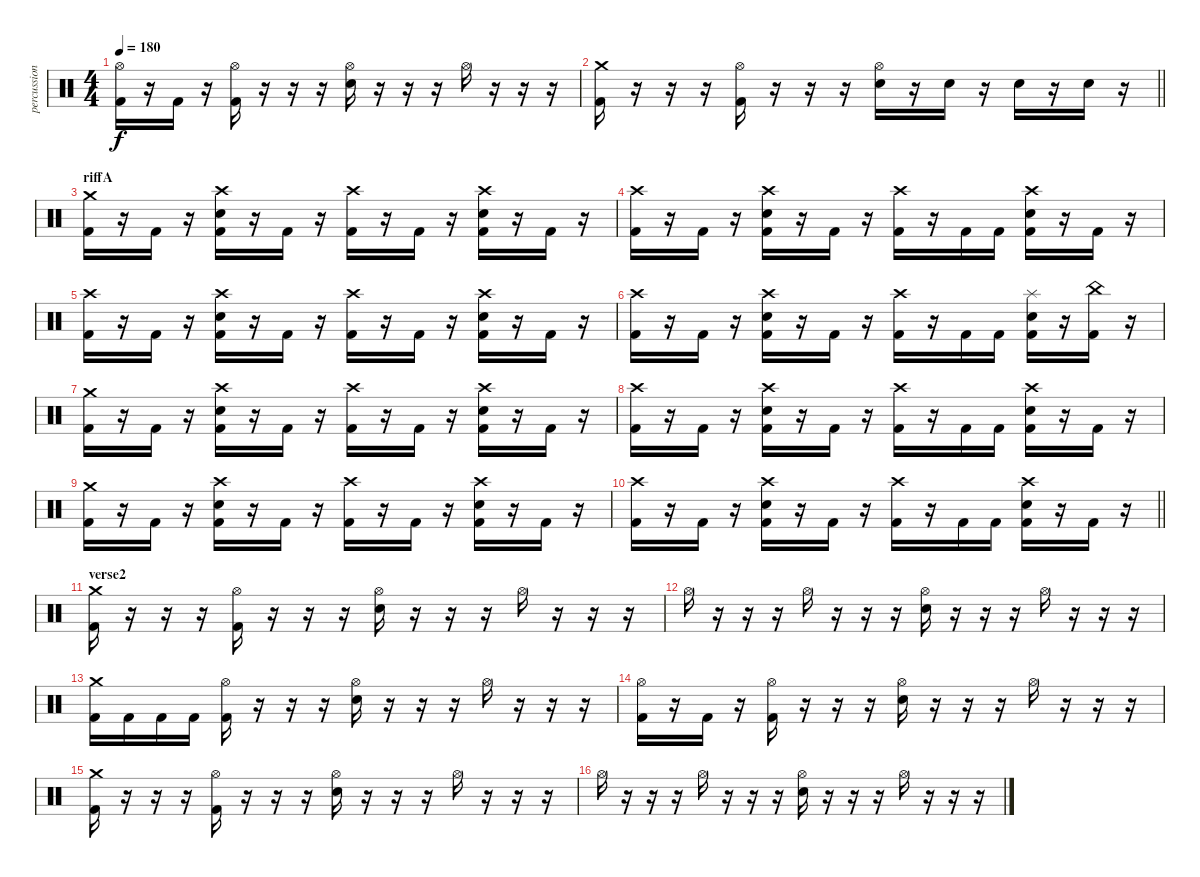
\track ("percussion" "percussion") {instrument percussion}
\staff {score}
\articulation defaults
\ts (4 4)
\tempo 180
\clef neutral
\ks c
("Hi-Hat (open)" "Kick (hit) 2").16{dy f} r.16 "Kick (hit) 2".16 r.16 ("Hi-Hat (open)" "Kick (hit) 2").16 r.16 r.16 r.16 ("Hi-Hat (open)" "Electric Snare (hit)").16 r.16 r.16 r.16 "Hi-Hat (open)".16 r.16 r.16 r.16 |
\barLineRight lightlight
("Crash medium (hit)" "Kick (hit) 2").16 r.16 r.16 r.16 ("Hi-Hat (open)" "Kick (hit) 2").16 r.16 r.16 r.16 ("Hi-Hat (open)" "Electric Snare (hit)").16 r.16 "Electric Snare (hit)".16 r.16 "Electric Snare (hit)".16 r.16 "Electric Snare (hit)".16 r.16 |
\section ("" "riffA")
("Crash medium (hit)" "Kick (hit) 2").16 r.16 "Kick (hit) 2".16 r.16 ("Crash high (hit)" "Electric Snare (hit)" "Kick (hit) 2").16 r.16 "Kick (hit) 2".16 r.16 ("Crash high (hit)" "Kick (hit) 2").16 r.16 "Kick (hit) 2".16 r.16 ("Crash high (hit)" "Electric Snare (hit)" "Kick (hit) 2").16 r.16 "Kick (hit) 2".16 r.16 |
("Crash high (hit)" "Kick (hit) 2").16 r.16 "Kick (hit) 2".16 r.16 ("Crash high (hit)" "Electric Snare (hit)" "Kick (hit) 2").16 r.16 "Kick (hit) 2".16 r.16 ("Crash high (hit)" "Kick (hit) 2").16 r.16 "Kick (hit) 2".16 "Kick (hit) 2".16 ("Crash high (hit)" "Electric Snare (hit)" "Kick (hit) 2").16 r.16 "Kick (hit) 2".16 r.16 |
("Crash high (hit)" "Kick (hit) 2").16 r.16 "Kick (hit) 2".16 r.16 ("Crash high (hit)" "Electric Snare (hit)" "Kick (hit) 2").16 r.16 "Kick (hit) 2".16 r.16 ("Crash high (hit)" "Kick (hit) 2").16 r.16 "Kick (hit) 2".16 r.16 ("Crash high (hit)" "Electric Snare (hit)" "Kick (hit) 2").16 r.16 "Kick (hit) 2".16 r.16 |
("Crash high (hit)" "Kick (hit) 2").16 r.16 "Kick (hit) 2".16 r.16 ("Crash high (hit)" "Electric Snare (hit)" "Kick (hit) 2").16 r.16 "Kick (hit) 2".16 r.16 ("Crash high (hit)" "Kick (hit) 2").16 r.16 "Kick (hit) 2".16 "Kick (hit) 2".16 ("Splash (hit)" "Electric Snare (hit)" "Kick (hit) 2").16 r.16 ("China (hit)" "Kick (hit) 2").16 r.16 |
("Crash medium (hit)" "Kick (hit) 2").16 r.16 "Kick (hit) 2".16 r.16 ("Crash high (hit)" "Electric Snare (hit)" "Kick (hit) 2").16 r.16 "Kick (hit) 2".16 r.16 ("Crash high (hit)" "Kick (hit) 2").16 r.16 "Kick (hit) 2".16 r.16 ("Crash high (hit)" "Electric Snare (hit)" "Kick (hit) 2").16 r.16 "Kick (hit) 2".16 r.16 |
("Crash high (hit)" "Kick (hit) 2").16 r.16 "Kick (hit) 2".16 r.16 ("Crash high (hit)" "Electric Snare (hit)" "Kick (hit) 2").16 r.16 "Kick (hit) 2".16 r.16 ("Crash high (hit)" "Kick (hit) 2").16 r.16 "Kick (hit) 2".16 "Kick (hit) 2".16 ("Crash high (hit)" "Electric Snare (hit)" "Kick (hit) 2").16 r.16 "Kick (hit) 2".16 r.16 |
("Crash medium (hit)" "Kick (hit) 2").16 r.16 "Kick (hit) 2".16 r.16 ("Crash high (hit)" "Electric Snare (hit)" "Kick (hit) 2").16 r.16 "Kick (hit) 2".16 r.16 ("Crash high (hit)" "Kick (hit) 2").16 r.16 "Kick (hit) 2".16 r.16 ("Crash high (hit)" "Electric Snare (hit)" "Kick (hit) 2").16 r.16 "Kick (hit) 2".16 r.16 |
\barLineRight lightlight
("Crash high (hit)" "Kick (hit) 2").16 r.16 "Kick (hit) 2".16 r.16 ("Crash high (hit)" "Electric Snare (hit)" "Kick (hit) 2").16 r.16 "Kick (hit) 2".16 r.16 ("Crash high (hit)" "Kick (hit) 2").16 r.16 "Kick (hit) 2".16 "Kick (hit) 2".16 ("Crash high (hit)" "Electric Snare (hit)" "Kick (hit) 2").16 r.16 "Kick (hit) 2".16 r.16 |
\section ("" "verse2")
("Crash medium (hit)" "Kick (hit) 2").16 r.16 r.16 r.16 ("Hi-Hat (open)" "Kick (hit) 2").16 r.16 r.16 r.16 ("Hi-Hat (open)" "Electric Snare (hit)").16 r.16 r.16 r.16 "Hi-Hat (open)".16 r.16 r.16 r.16 |
"Hi-Hat (open)".16 r.16 r.16 r.16 "Hi-Hat (open)".16 r.16 r.16 r.16 ("Hi-Hat (open)" "Electric Snare (hit)").16 r.16 r.16 r.16 "Hi-Hat (open)".16 r.16 r.16 r.16 |
("Crash medium (hit)" "Kick (hit) 2").16 "Kick (hit) 2".16 "Kick (hit) 2".16 "Kick (hit) 2".16 ("Hi-Hat (open)" "Kick (hit) 2").16 r.16 r.16 r.16 ("Hi-Hat (open)" "Electric Snare (hit)").16 r.16 r.16 r.16 "Hi-Hat (open)".16 r.16 r.16 r.16 |
("Hi-Hat (open)" "Kick (hit) 2").16 r.16 "Kick (hit) 2".16 r.16 ("Hi-Hat (open)" "Kick (hit) 2").16 r.16 r.16 r.16 ("Hi-Hat (open)" "Electric Snare (hit)").16 r.16 r.16 r.16 "Hi-Hat (open)".16 r.16 r.16 r.16 |
("Crash medium (hit)" "Kick (hit) 2").16 r.16 r.16 r.16 ("Hi-Hat (open)" "Kick (hit) 2").16 r.16 r.16 r.16 ("Hi-Hat (open)" "Electric Snare (hit)").16 r.16 r.16 r.16 "Hi-Hat (open)".16 r.16 r.16 r.16 |
"Hi-Hat (open)".16 r.16 r.16 r.16 "Hi-Hat (open)".16 r.16 r.16 r.16 ("Hi-Hat (open)" "Electric Snare (hit)").16 r.16 r.16 r.16 "Hi-Hat (open)".16 r.16 r.16 r.16
